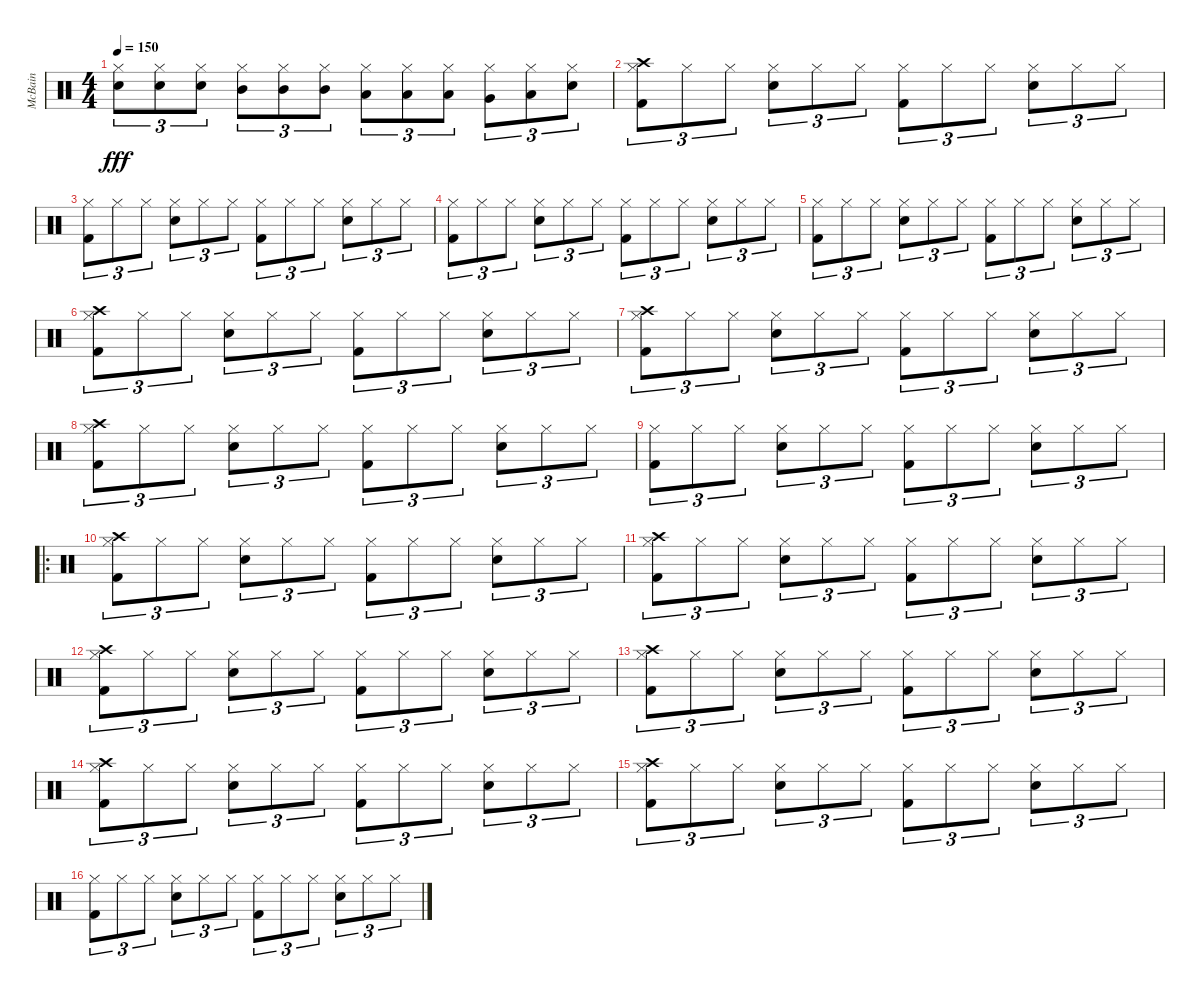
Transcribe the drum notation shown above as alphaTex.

\track ("McBain" "McBain") {instrument percussion}
\staff {score}
\articulation defaults
\ts (4 4)
\tempo 150
\clef neutral
\ks c
("Snare (hit) 2" "Hi-Hat (closed)").8{tu (3 2) dy fff} ("Snare (hit) 2" "Hi-Hat (closed)").8{tu (3 2)} ("Snare (hit) 2" "Hi-Hat (closed)").8{tu (3 2)} ("Mid Tom (hit)" "Hi-Hat (closed)").8{tu (3 2)} ("Mid Tom (hit)" "Hi-Hat (closed)").8{tu (3 2)} ("Mid Tom (hit)" "Hi-Hat (closed)").8{tu (3 2)} ("Low Tom (hit)" "Hi-Hat (closed)").8{tu (3 2)} ("Low Tom (hit)" "Hi-Hat (closed)").8{tu (3 2)} ("Low Tom (hit)" "Hi-Hat (closed)").8{tu (3 2)} ("Very Low Tom (hit)" "Hi-Hat (closed)").8{tu (3 2)} ("Low Floor Tom (hit)" "Hi-Hat (closed)").8{tu (3 2)} ("Electric Snare (hit)" "Hi-Hat (closed)").8{tu (3 2)} |
("Hi-Hat (closed)" "Kick (hit) 2" "Crash high (hit)").8{tu (3 2)} "Hi-Hat (closed)".8{tu (3 2)} "Hi-Hat (closed)".8{tu (3 2)} ("Hi-Hat (closed)" "Snare (hit) 2").8{tu (3 2)} "Hi-Hat (closed)".8{tu (3 2)} "Hi-Hat (closed)".8{tu (3 2)} ("Hi-Hat (closed)" "Kick (hit) 2").8{tu (3 2)} "Hi-Hat (closed)".8{tu (3 2)} "Hi-Hat (closed)".8{tu (3 2)} ("Hi-Hat (closed)" "Snare (hit) 2").8{tu (3 2)} "Hi-Hat (closed)".8{tu (3 2)} "Hi-Hat (closed)".8{tu (3 2)} |
("Hi-Hat (closed)" "Kick (hit) 2").8{tu (3 2)} "Hi-Hat (closed)".8{tu (3 2)} "Hi-Hat (closed)".8{tu (3 2)} ("Hi-Hat (closed)" "Snare (hit) 2").8{tu (3 2)} "Hi-Hat (closed)".8{tu (3 2)} "Hi-Hat (closed)".8{tu (3 2)} ("Hi-Hat (closed)" "Kick (hit) 2").8{tu (3 2)} "Hi-Hat (closed)".8{tu (3 2)} "Hi-Hat (closed)".8{tu (3 2)} ("Hi-Hat (closed)" "Snare (hit) 2").8{tu (3 2)} "Hi-Hat (closed)".8{tu (3 2)} "Hi-Hat (closed)".8{tu (3 2)} |
("Hi-Hat (closed)" "Kick (hit) 2").8{tu (3 2)} "Hi-Hat (closed)".8{tu (3 2)} "Hi-Hat (closed)".8{tu (3 2)} ("Hi-Hat (closed)" "Snare (hit) 2").8{tu (3 2)} "Hi-Hat (closed)".8{tu (3 2)} "Hi-Hat (closed)".8{tu (3 2)} ("Hi-Hat (closed)" "Kick (hit) 2").8{tu (3 2)} "Hi-Hat (closed)".8{tu (3 2)} "Hi-Hat (closed)".8{tu (3 2)} ("Hi-Hat (closed)" "Snare (hit) 2").8{tu (3 2)} "Hi-Hat (closed)".8{tu (3 2)} "Hi-Hat (closed)".8{tu (3 2)} |
("Hi-Hat (closed)" "Kick (hit) 2").8{tu (3 2)} "Hi-Hat (closed)".8{tu (3 2)} "Hi-Hat (closed)".8{tu (3 2)} ("Hi-Hat (closed)" "Snare (hit) 2").8{tu (3 2)} "Hi-Hat (closed)".8{tu (3 2)} "Hi-Hat (closed)".8{tu (3 2)} ("Hi-Hat (closed)" "Kick (hit) 2").8{tu (3 2)} "Hi-Hat (closed)".8{tu (3 2)} "Hi-Hat (closed)".8{tu (3 2)} ("Hi-Hat (closed)" "Snare (hit) 2").8{tu (3 2)} "Hi-Hat (closed)".8{tu (3 2)} "Hi-Hat (closed)".8{tu (3 2)} |
("Hi-Hat (closed)" "Kick (hit) 2" "Crash high (hit)").8{tu (3 2)} "Hi-Hat (closed)".8{tu (3 2)} "Hi-Hat (closed)".8{tu (3 2)} ("Hi-Hat (closed)" "Snare (hit) 2").8{tu (3 2)} "Hi-Hat (closed)".8{tu (3 2)} "Hi-Hat (closed)".8{tu (3 2)} ("Hi-Hat (closed)" "Kick (hit) 2").8{tu (3 2)} "Hi-Hat (closed)".8{tu (3 2)} "Hi-Hat (closed)".8{tu (3 2)} ("Hi-Hat (closed)" "Snare (hit) 2").8{tu (3 2)} "Hi-Hat (closed)".8{tu (3 2)} "Hi-Hat (closed)".8{tu (3 2)} |
("Hi-Hat (closed)" "Kick (hit) 2" "Crash high (hit)").8{tu (3 2)} "Hi-Hat (closed)".8{tu (3 2)} "Hi-Hat (closed)".8{tu (3 2)} ("Hi-Hat (closed)" "Snare (hit) 2").8{tu (3 2)} "Hi-Hat (closed)".8{tu (3 2)} "Hi-Hat (closed)".8{tu (3 2)} ("Hi-Hat (closed)" "Kick (hit) 2").8{tu (3 2)} "Hi-Hat (closed)".8{tu (3 2)} "Hi-Hat (closed)".8{tu (3 2)} ("Hi-Hat (closed)" "Snare (hit) 2").8{tu (3 2)} "Hi-Hat (closed)".8{tu (3 2)} "Hi-Hat (closed)".8{tu (3 2)} |
("Hi-Hat (closed)" "Kick (hit) 2" "Crash high (hit)").8{tu (3 2)} "Hi-Hat (closed)".8{tu (3 2)} "Hi-Hat (closed)".8{tu (3 2)} ("Hi-Hat (closed)" "Snare (hit) 2").8{tu (3 2)} "Hi-Hat (closed)".8{tu (3 2)} "Hi-Hat (closed)".8{tu (3 2)} ("Hi-Hat (closed)" "Kick (hit) 2").8{tu (3 2)} "Hi-Hat (closed)".8{tu (3 2)} "Hi-Hat (closed)".8{tu (3 2)} ("Hi-Hat (closed)" "Snare (hit) 2").8{tu (3 2)} "Hi-Hat (closed)".8{tu (3 2)} "Hi-Hat (closed)".8{tu (3 2)} |
("Hi-Hat (closed)" "Kick (hit) 2").8{tu (3 2)} "Hi-Hat (closed)".8{tu (3 2)} "Hi-Hat (closed)".8{tu (3 2)} ("Hi-Hat (closed)" "Snare (hit) 2").8{tu (3 2)} "Hi-Hat (closed)".8{tu (3 2)} "Hi-Hat (closed)".8{tu (3 2)} ("Hi-Hat (closed)" "Kick (hit) 2").8{tu (3 2)} "Hi-Hat (closed)".8{tu (3 2)} "Hi-Hat (closed)".8{tu (3 2)} ("Hi-Hat (closed)" "Snare (hit) 2").8{tu (3 2)} "Hi-Hat (closed)".8{tu (3 2)} "Hi-Hat (closed)".8{tu (3 2)} |
\ro
("Hi-Hat (closed)" "Kick (hit) 2" "Crash high (hit)").8{tu (3 2)} "Hi-Hat (closed)".8{tu (3 2)} "Hi-Hat (closed)".8{tu (3 2)} ("Hi-Hat (closed)" "Snare (hit) 2").8{tu (3 2)} "Hi-Hat (closed)".8{tu (3 2)} "Hi-Hat (closed)".8{tu (3 2)} ("Hi-Hat (closed)" "Kick (hit) 2").8{tu (3 2)} "Hi-Hat (closed)".8{tu (3 2)} "Hi-Hat (closed)".8{tu (3 2)} ("Hi-Hat (closed)" "Snare (hit) 2").8{tu (3 2)} "Hi-Hat (closed)".8{tu (3 2)} "Hi-Hat (closed)".8{tu (3 2)} |
("Hi-Hat (closed)" "Kick (hit) 2" "Crash high (hit)").8{tu (3 2)} "Hi-Hat (closed)".8{tu (3 2)} "Hi-Hat (closed)".8{tu (3 2)} ("Hi-Hat (closed)" "Snare (hit) 2").8{tu (3 2)} "Hi-Hat (closed)".8{tu (3 2)} "Hi-Hat (closed)".8{tu (3 2)} ("Hi-Hat (closed)" "Kick (hit) 2").8{tu (3 2)} "Hi-Hat (closed)".8{tu (3 2)} "Hi-Hat (closed)".8{tu (3 2)} ("Hi-Hat (closed)" "Snare (hit) 2").8{tu (3 2)} "Hi-Hat (closed)".8{tu (3 2)} "Hi-Hat (closed)".8{tu (3 2)} |
("Hi-Hat (closed)" "Kick (hit) 2" "Crash high (hit)").8{tu (3 2)} "Hi-Hat (closed)".8{tu (3 2)} "Hi-Hat (closed)".8{tu (3 2)} ("Hi-Hat (closed)" "Snare (hit) 2").8{tu (3 2)} "Hi-Hat (closed)".8{tu (3 2)} "Hi-Hat (closed)".8{tu (3 2)} ("Hi-Hat (closed)" "Kick (hit) 2").8{tu (3 2)} "Hi-Hat (closed)".8{tu (3 2)} "Hi-Hat (closed)".8{tu (3 2)} ("Hi-Hat (closed)" "Snare (hit) 2").8{tu (3 2)} "Hi-Hat (closed)".8{tu (3 2)} "Hi-Hat (closed)".8{tu (3 2)} |
("Hi-Hat (closed)" "Kick (hit) 2" "Crash high (hit)").8{tu (3 2)} "Hi-Hat (closed)".8{tu (3 2)} "Hi-Hat (closed)".8{tu (3 2)} ("Hi-Hat (closed)" "Snare (hit) 2").8{tu (3 2)} "Hi-Hat (closed)".8{tu (3 2)} "Hi-Hat (closed)".8{tu (3 2)} ("Hi-Hat (closed)" "Kick (hit) 2").8{tu (3 2)} "Hi-Hat (closed)".8{tu (3 2)} "Hi-Hat (closed)".8{tu (3 2)} ("Hi-Hat (closed)" "Snare (hit) 2").8{tu (3 2)} "Hi-Hat (closed)".8{tu (3 2)} "Hi-Hat (closed)".8{tu (3 2)} |
("Hi-Hat (closed)" "Kick (hit) 2" "Crash high (hit)").8{tu (3 2)} "Hi-Hat (closed)".8{tu (3 2)} "Hi-Hat (closed)".8{tu (3 2)} ("Hi-Hat (closed)" "Snare (hit) 2").8{tu (3 2)} "Hi-Hat (closed)".8{tu (3 2)} "Hi-Hat (closed)".8{tu (3 2)} ("Hi-Hat (closed)" "Kick (hit) 2").8{tu (3 2)} "Hi-Hat (closed)".8{tu (3 2)} "Hi-Hat (closed)".8{tu (3 2)} ("Hi-Hat (closed)" "Snare (hit) 2").8{tu (3 2)} "Hi-Hat (closed)".8{tu (3 2)} "Hi-Hat (closed)".8{tu (3 2)} |
("Hi-Hat (closed)" "Kick (hit) 2" "Crash high (hit)").8{tu (3 2)} "Hi-Hat (closed)".8{tu (3 2)} "Hi-Hat (closed)".8{tu (3 2)} ("Hi-Hat (closed)" "Snare (hit) 2").8{tu (3 2)} "Hi-Hat (closed)".8{tu (3 2)} "Hi-Hat (closed)".8{tu (3 2)} ("Hi-Hat (closed)" "Kick (hit) 2").8{tu (3 2)} "Hi-Hat (closed)".8{tu (3 2)} "Hi-Hat (closed)".8{tu (3 2)} ("Hi-Hat (closed)" "Snare (hit) 2").8{tu (3 2)} "Hi-Hat (closed)".8{tu (3 2)} "Hi-Hat (closed)".8{tu (3 2)} |
("Hi-Hat (closed)" "Kick (hit) 2").8{tu (3 2)} "Hi-Hat (closed)".8{tu (3 2)} "Hi-Hat (closed)".8{tu (3 2)} ("Hi-Hat (closed)" "Snare (hit) 2").8{tu (3 2)} "Hi-Hat (closed)".8{tu (3 2)} "Hi-Hat (closed)".8{tu (3 2)} ("Hi-Hat (closed)" "Kick (hit) 2").8{tu (3 2)} "Hi-Hat (closed)".8{tu (3 2)} "Hi-Hat (closed)".8{tu (3 2)} ("Hi-Hat (closed)" "Snare (hit) 2").8{tu (3 2)} "Hi-Hat (closed)".8{tu (3 2)} "Hi-Hat (closed)".8{tu (3 2)}
